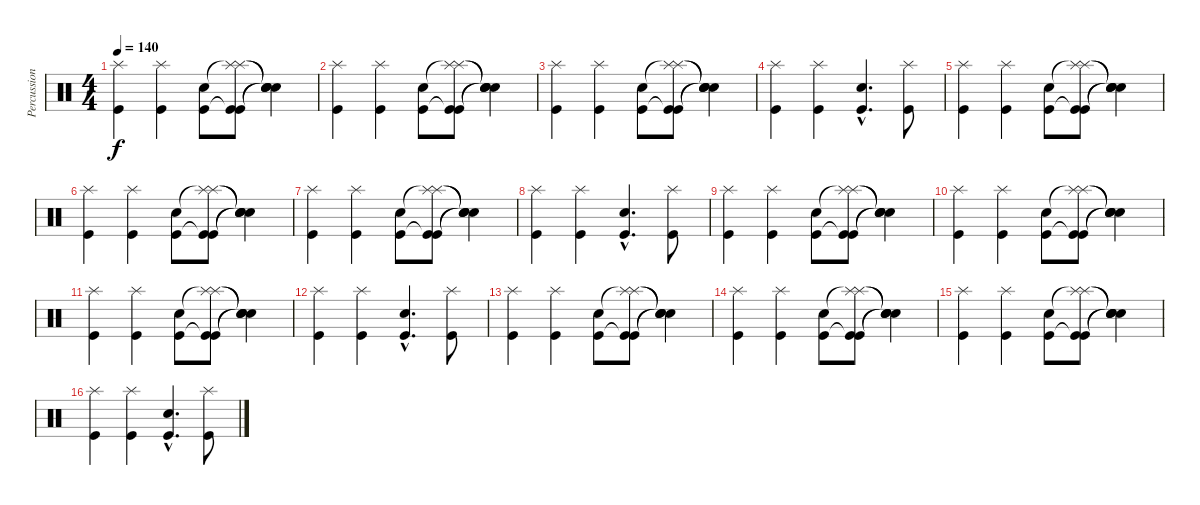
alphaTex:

\track ("Percussions" "Percussion") {instrument percussion}
\staff {score}
\articulation defaults
\ts (4 4)
\tempo 140
\clef neutral
\ks c
("Kick (hit)" "Splash (hit)").4{dy f} ("Kick (hit)" "Splash (hit)").4 ("Kick (hit)" "Electric Snare (hit)").8 ("Kick (hit)"{t} "Splash (hit)"{t} "Kick (hit)" "Splash (hit)").8 ("Snare (hit)"{t} "Snare (hit)"{t} "Snare (hit)"{t} "Snare (hit)"{t}).4 |
("Kick (hit)" "Splash (hit)").4 ("Kick (hit)" "Splash (hit)").4 ("Kick (hit)" "Electric Snare (hit)").8 ("Kick (hit)"{t} "Splash (hit)"{t} "Kick (hit)" "Splash (hit)").8 ("Snare (hit)"{t} "Snare (hit)"{t} "Snare (hit)"{t} "Snare (hit)"{t}).4 |
("Kick (hit)" "Splash (hit)").4 ("Kick (hit)" "Splash (hit)").4 ("Kick (hit)" "Electric Snare (hit)").8 ("Kick (hit)"{t} "Splash (hit)"{t} "Kick (hit)" "Splash (hit)").8 ("Snare (hit)"{t} "Snare (hit)"{t} "Snare (hit)"{t} "Snare (hit)"{t}).4 |
("Kick (hit)" "Splash (hit)").4 ("Kick (hit)" "Splash (hit)").4 ("Kick (hit)"{hac} "Electric Snare (hit)"{hac}).4{d} ("Kick (hit)" "Splash (hit)").8 |
("Kick (hit)" "Splash (hit)").4 ("Kick (hit)" "Splash (hit)").4 ("Kick (hit)" "Electric Snare (hit)").8 ("Kick (hit)"{t} "Splash (hit)"{t} "Kick (hit)" "Splash (hit)").8 ("Snare (hit)"{t} "Snare (hit)"{t} "Snare (hit)"{t} "Snare (hit)"{t}).4 |
("Kick (hit)" "Splash (hit)").4 ("Kick (hit)" "Splash (hit)").4 ("Kick (hit)" "Electric Snare (hit)").8 ("Kick (hit)"{t} "Splash (hit)"{t} "Kick (hit)" "Splash (hit)").8 ("Snare (hit)"{t} "Snare (hit)"{t} "Snare (hit)"{t} "Snare (hit)"{t}).4 |
("Kick (hit)" "Splash (hit)").4 ("Kick (hit)" "Splash (hit)").4 ("Kick (hit)" "Electric Snare (hit)").8 ("Kick (hit)"{t} "Splash (hit)"{t} "Kick (hit)" "Splash (hit)").8 ("Snare (hit)"{t} "Snare (hit)"{t} "Snare (hit)"{t} "Snare (hit)"{t}).4 |
("Kick (hit)" "Splash (hit)").4 ("Kick (hit)" "Splash (hit)").4 ("Kick (hit)"{hac} "Electric Snare (hit)"{hac}).4{d} ("Kick (hit)" "Splash (hit)").8 |
("Kick (hit)" "Splash (hit)").4 ("Kick (hit)" "Splash (hit)").4 ("Kick (hit)" "Electric Snare (hit)").8 ("Kick (hit)"{t} "Splash (hit)"{t} "Kick (hit)" "Splash (hit)").8 ("Snare (hit)"{t} "Snare (hit)"{t} "Snare (hit)"{t} "Snare (hit)"{t}).4 |
("Kick (hit)" "Splash (hit)").4 ("Kick (hit)" "Splash (hit)").4 ("Kick (hit)" "Electric Snare (hit)").8 ("Kick (hit)"{t} "Splash (hit)"{t} "Kick (hit)" "Splash (hit)").8 ("Snare (hit)"{t} "Snare (hit)"{t} "Snare (hit)"{t} "Snare (hit)"{t}).4 |
("Kick (hit)" "Splash (hit)").4 ("Kick (hit)" "Splash (hit)").4 ("Kick (hit)" "Electric Snare (hit)").8 ("Kick (hit)"{t} "Splash (hit)"{t} "Kick (hit)" "Splash (hit)").8 ("Snare (hit)"{t} "Snare (hit)"{t} "Snare (hit)"{t} "Snare (hit)"{t}).4 |
("Kick (hit)" "Splash (hit)").4 ("Kick (hit)" "Splash (hit)").4 ("Kick (hit)"{hac} "Electric Snare (hit)"{hac}).4{d} ("Kick (hit)" "Splash (hit)").8 |
("Kick (hit)" "Splash (hit)").4 ("Kick (hit)" "Splash (hit)").4 ("Kick (hit)" "Electric Snare (hit)").8 ("Kick (hit)"{t} "Splash (hit)"{t} "Kick (hit)" "Splash (hit)").8 ("Snare (hit)"{t} "Snare (hit)"{t} "Snare (hit)"{t} "Snare (hit)"{t}).4 |
("Kick (hit)" "Splash (hit)").4 ("Kick (hit)" "Splash (hit)").4 ("Kick (hit)" "Electric Snare (hit)").8 ("Kick (hit)"{t} "Splash (hit)"{t} "Kick (hit)" "Splash (hit)").8 ("Snare (hit)"{t} "Snare (hit)"{t} "Snare (hit)"{t} "Snare (hit)"{t}).4 |
("Kick (hit)" "Splash (hit)").4 ("Kick (hit)" "Splash (hit)").4 ("Kick (hit)" "Electric Snare (hit)").8 ("Kick (hit)"{t} "Splash (hit)"{t} "Kick (hit)" "Splash (hit)").8 ("Snare (hit)"{t} "Snare (hit)"{t} "Snare (hit)"{t} "Snare (hit)"{t}).4 |
("Kick (hit)" "Splash (hit)").4 ("Kick (hit)" "Splash (hit)").4 ("Kick (hit)"{hac} "Electric Snare (hit)"{hac}).4{d} ("Kick (hit)" "Splash (hit)").8
